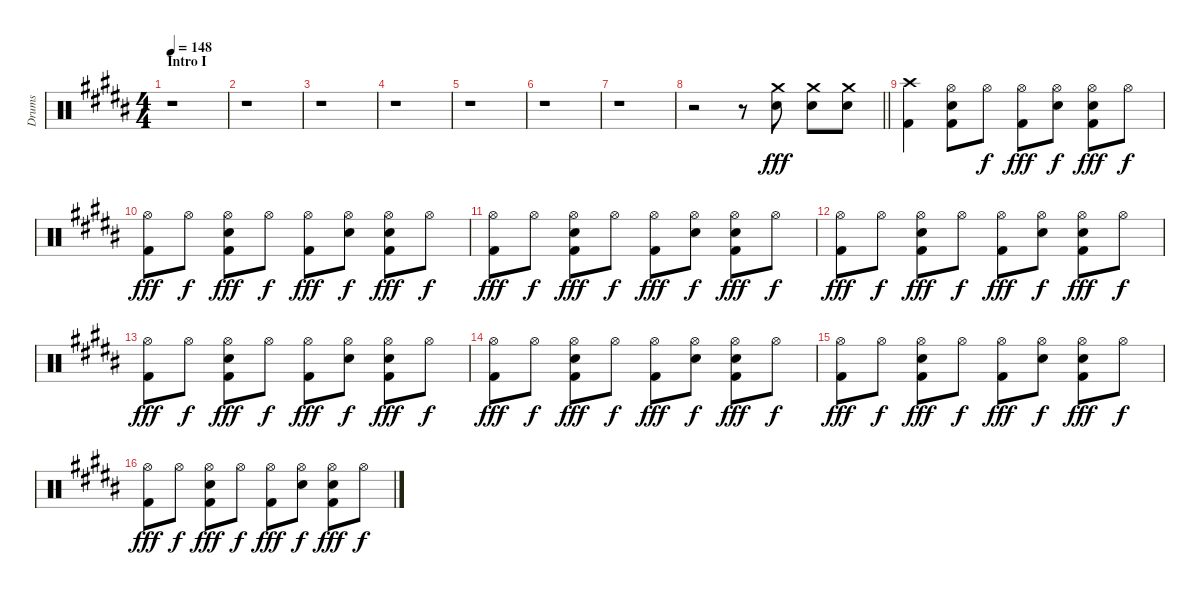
\track ("Drums" "Drums") {instrument percussion}
\staff {score}
\articulation defaults
\ts (4 4)
\section ("" "Intro I")
\tempo 148
\clef neutral
\ks b
r.1{dy fff} |
r.1 |
r.1 |
r.1 |
r.1 |
r.1 |
r.1 |
\barLineRight lightlight
r.2 r.8 ("Crash medium (hit)" "Snare (hit) 2").8 ("Crash medium (hit)" "Snare (hit) 2").8 ("Crash medium (hit)" "Snare (hit) 2").8 |
("Crash high (hit)" "Kick (hit) 2").4 ("Hi-Hat (open)" "Snare (hit) 2" "Kick (hit) 2").8 "Hi-Hat (open)".8{dy f} ("Hi-Hat (open)" "Kick (hit) 2").8{dy fff} ("Hi-Hat (open)" "Electric Snare (hit)").8{dy f} ("Hi-Hat (open)" "Snare (hit) 2" "Kick (hit) 2").8{dy fff} "Hi-Hat (open)".8{dy f} |
("Hi-Hat (open)" "Kick (hit) 2").8{dy fff} "Hi-Hat (open)".8{dy f} ("Hi-Hat (open)" "Snare (hit) 2" "Kick (hit) 2").8{dy fff} "Hi-Hat (open)".8{dy f} ("Hi-Hat (open)" "Kick (hit) 2").8{dy fff} ("Hi-Hat (open)" "Electric Snare (hit)").8{dy f} ("Hi-Hat (open)" "Snare (hit) 2" "Kick (hit) 2").8{dy fff} "Hi-Hat (open)".8{dy f} |
("Hi-Hat (open)" "Kick (hit) 2").8{dy fff} "Hi-Hat (open)".8{dy f} ("Hi-Hat (open)" "Snare (hit) 2" "Kick (hit) 2").8{dy fff} "Hi-Hat (open)".8{dy f} ("Hi-Hat (open)" "Kick (hit) 2").8{dy fff} ("Hi-Hat (open)" "Electric Snare (hit)").8{dy f} ("Hi-Hat (open)" "Snare (hit) 2" "Kick (hit) 2").8{dy fff} "Hi-Hat (open)".8{dy f} |
("Hi-Hat (open)" "Kick (hit) 2").8{dy fff} "Hi-Hat (open)".8{dy f} ("Hi-Hat (open)" "Snare (hit) 2" "Kick (hit) 2").8{dy fff} "Hi-Hat (open)".8{dy f} ("Hi-Hat (open)" "Kick (hit) 2").8{dy fff} ("Hi-Hat (open)" "Electric Snare (hit)").8{dy f} ("Hi-Hat (open)" "Snare (hit) 2" "Kick (hit) 2").8{dy fff} "Hi-Hat (open)".8{dy f} |
("Hi-Hat (open)" "Kick (hit) 2").8{dy fff} "Hi-Hat (open)".8{dy f} ("Hi-Hat (open)" "Snare (hit) 2" "Kick (hit) 2").8{dy fff} "Hi-Hat (open)".8{dy f} ("Hi-Hat (open)" "Kick (hit) 2").8{dy fff} ("Hi-Hat (open)" "Electric Snare (hit)").8{dy f} ("Hi-Hat (open)" "Snare (hit) 2" "Kick (hit) 2").8{dy fff} "Hi-Hat (open)".8{dy f} |
("Hi-Hat (open)" "Kick (hit) 2").8{dy fff} "Hi-Hat (open)".8{dy f} ("Hi-Hat (open)" "Snare (hit) 2" "Kick (hit) 2").8{dy fff} "Hi-Hat (open)".8{dy f} ("Hi-Hat (open)" "Kick (hit) 2").8{dy fff} ("Hi-Hat (open)" "Electric Snare (hit)").8{dy f} ("Hi-Hat (open)" "Snare (hit) 2" "Kick (hit) 2").8{dy fff} "Hi-Hat (open)".8{dy f} |
("Hi-Hat (open)" "Kick (hit) 2").8{dy fff} "Hi-Hat (open)".8{dy f} ("Hi-Hat (open)" "Snare (hit) 2" "Kick (hit) 2").8{dy fff} "Hi-Hat (open)".8{dy f} ("Hi-Hat (open)" "Kick (hit) 2").8{dy fff} ("Hi-Hat (open)" "Electric Snare (hit)").8{dy f} ("Hi-Hat (open)" "Snare (hit) 2" "Kick (hit) 2").8{dy fff} "Hi-Hat (open)".8{dy f} |
("Hi-Hat (open)" "Kick (hit) 2").8{dy fff} "Hi-Hat (open)".8{dy f} ("Hi-Hat (open)" "Snare (hit) 2" "Kick (hit) 2").8{dy fff} "Hi-Hat (open)".8{dy f} ("Hi-Hat (open)" "Kick (hit) 2").8{dy fff} ("Hi-Hat (open)" "Electric Snare (hit)").8{dy f} ("Hi-Hat (open)" "Snare (hit) 2" "Kick (hit) 2").8{dy fff} "Hi-Hat (open)".8{dy f}
